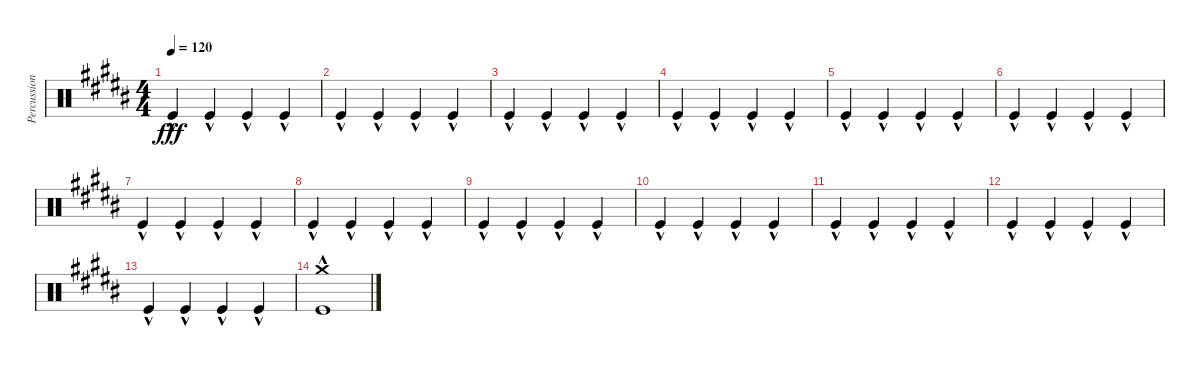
\track ("Percussion" "Percussion") {instrument percussion}
\staff {score}
\articulation defaults
\ts (4 4)
\tempo 120
\clef neutral
\ks b "Kick (hit)"{hac}.4{dy fff} "Kick (hit)"{hac}.4 "Kick (hit)"{hac}.4 "Kick (hit)"{hac}.4
|
"Kick (hit)"{hac}.4 "Kick (hit)"{hac}.4 "Kick (hit)"{hac}.4 "Kick (hit)"{hac}.4 |
"Kick (hit)"{hac}.4 "Kick (hit)"{hac}.4 "Kick (hit)"{hac}.4 "Kick (hit)"{hac}.4 |
"Kick (hit)"{hac}.4 "Kick (hit)"{hac}.4 "Kick (hit)"{hac}.4 "Kick (hit)"{hac}.4 |
"Kick (hit)"{hac}.4 "Kick (hit)"{hac}.4 "Kick (hit)"{hac}.4 "Kick (hit)"{hac}.4 |
"Kick (hit)"{hac}.4 "Kick (hit)"{hac}.4 "Kick (hit)"{hac}.4 "Kick (hit)"{hac}.4 |
"Kick (hit)"{hac}.4 "Kick (hit)"{hac}.4 "Kick (hit)"{hac}.4 "Kick (hit)"{hac}.4 |
"Kick (hit)"{hac}.4 "Kick (hit)"{hac}.4 "Kick (hit)"{hac}.4 "Kick (hit)"{hac}.4 |
"Kick (hit)"{hac}.4 "Kick (hit)"{hac}.4 "Kick (hit)"{hac}.4 "Kick (hit)"{hac}.4 |
"Kick (hit)"{hac}.4 "Kick (hit)"{hac}.4 "Kick (hit)"{hac}.4 "Kick (hit)"{hac}.4 |
"Kick (hit)"{hac}.4 "Kick (hit)"{hac}.4 "Kick (hit)"{hac}.4 "Kick (hit)"{hac}.4 |
"Kick (hit)"{hac}.4 "Kick (hit)"{hac}.4 "Kick (hit)"{hac}.4 "Kick (hit)"{hac}.4 |
"Kick (hit)"{hac}.4 "Kick (hit)"{hac}.4 "Kick (hit)"{hac}.4 "Kick (hit)"{hac}.4 |
("Crash medium (hit)" "Kick (hit)"{hac}).1
